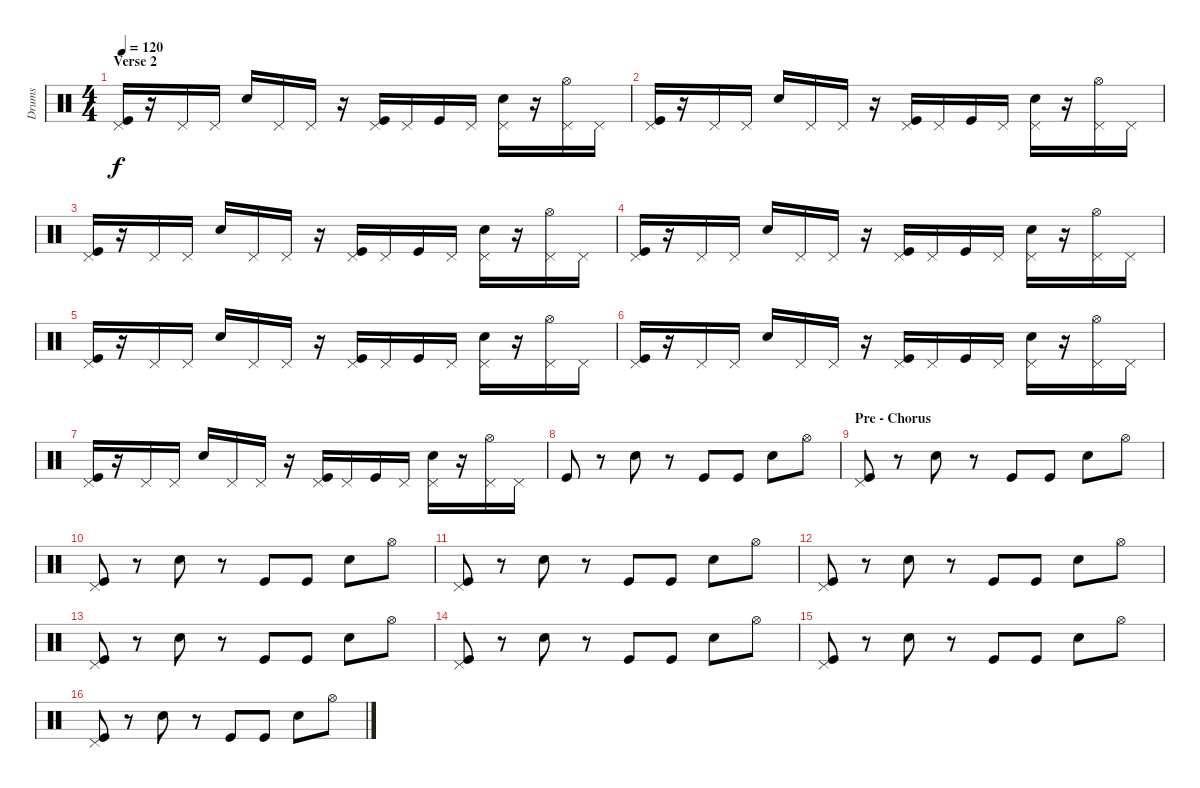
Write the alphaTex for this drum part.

\track ("Drums" "Drums") {instrument percussion}
\staff {score}
\articulation defaults
\ts (4 4)
\section ("" "Verse 2")
\tempo 120
\clef neutral
\ks c
("Kick (hit)" "Pedal Hi-Hat (hit)").16{dy f} r.16 "Pedal Hi-Hat (hit)".16 "Pedal Hi-Hat (hit)".16 "Snare (hit) 2".16 "Pedal Hi-Hat (hit)".16 "Pedal Hi-Hat (hit)".16 r.16 ("Kick (hit)" "Pedal Hi-Hat (hit)").16 "Pedal Hi-Hat (hit)".16 "Kick (hit)".16 "Pedal Hi-Hat (hit)".16 ("Snare (hit) 2" "Pedal Hi-Hat (hit)").16 r.16 ("Hi-Hat (open)" "Pedal Hi-Hat (hit)").16 "Pedal Hi-Hat (hit)".16 |
("Kick (hit)" "Pedal Hi-Hat (hit)").16 r.16 "Pedal Hi-Hat (hit)".16 "Pedal Hi-Hat (hit)".16 "Snare (hit) 2".16 "Pedal Hi-Hat (hit)".16 "Pedal Hi-Hat (hit)".16 r.16 ("Kick (hit)" "Pedal Hi-Hat (hit)").16 "Pedal Hi-Hat (hit)".16 "Kick (hit)".16 "Pedal Hi-Hat (hit)".16 ("Snare (hit) 2" "Pedal Hi-Hat (hit)").16 r.16 ("Hi-Hat (open)" "Pedal Hi-Hat (hit)").16 "Pedal Hi-Hat (hit)".16 |
("Kick (hit)" "Pedal Hi-Hat (hit)").16 r.16 "Pedal Hi-Hat (hit)".16 "Pedal Hi-Hat (hit)".16 "Snare (hit) 2".16 "Pedal Hi-Hat (hit)".16 "Pedal Hi-Hat (hit)".16 r.16 ("Kick (hit)" "Pedal Hi-Hat (hit)").16 "Pedal Hi-Hat (hit)".16 "Kick (hit)".16 "Pedal Hi-Hat (hit)".16 ("Snare (hit) 2" "Pedal Hi-Hat (hit)").16 r.16 ("Hi-Hat (open)" "Pedal Hi-Hat (hit)").16 "Pedal Hi-Hat (hit)".16 |
("Kick (hit)" "Pedal Hi-Hat (hit)").16 r.16 "Pedal Hi-Hat (hit)".16 "Pedal Hi-Hat (hit)".16 "Snare (hit) 2".16 "Pedal Hi-Hat (hit)".16 "Pedal Hi-Hat (hit)".16 r.16 ("Kick (hit)" "Pedal Hi-Hat (hit)").16 "Pedal Hi-Hat (hit)".16 "Kick (hit)".16 "Pedal Hi-Hat (hit)".16 ("Snare (hit) 2" "Pedal Hi-Hat (hit)").16 r.16 ("Hi-Hat (open)" "Pedal Hi-Hat (hit)").16 "Pedal Hi-Hat (hit)".16 |
("Kick (hit)" "Pedal Hi-Hat (hit)").16 r.16 "Pedal Hi-Hat (hit)".16 "Pedal Hi-Hat (hit)".16 "Snare (hit) 2".16 "Pedal Hi-Hat (hit)".16 "Pedal Hi-Hat (hit)".16 r.16 ("Kick (hit)" "Pedal Hi-Hat (hit)").16 "Pedal Hi-Hat (hit)".16 "Kick (hit)".16 "Pedal Hi-Hat (hit)".16 ("Snare (hit) 2" "Pedal Hi-Hat (hit)").16 r.16 ("Hi-Hat (open)" "Pedal Hi-Hat (hit)").16 "Pedal Hi-Hat (hit)".16 |
("Kick (hit)" "Pedal Hi-Hat (hit)").16 r.16 "Pedal Hi-Hat (hit)".16 "Pedal Hi-Hat (hit)".16 "Snare (hit) 2".16 "Pedal Hi-Hat (hit)".16 "Pedal Hi-Hat (hit)".16 r.16 ("Kick (hit)" "Pedal Hi-Hat (hit)").16 "Pedal Hi-Hat (hit)".16 "Kick (hit)".16 "Pedal Hi-Hat (hit)".16 ("Snare (hit) 2" "Pedal Hi-Hat (hit)").16 r.16 ("Hi-Hat (open)" "Pedal Hi-Hat (hit)").16 "Pedal Hi-Hat (hit)".16 |
("Kick (hit)" "Pedal Hi-Hat (hit)").16 r.16 "Pedal Hi-Hat (hit)".16 "Pedal Hi-Hat (hit)".16 "Snare (hit) 2".16 "Pedal Hi-Hat (hit)".16 "Pedal Hi-Hat (hit)".16 r.16 ("Kick (hit)" "Pedal Hi-Hat (hit)").16 "Pedal Hi-Hat (hit)".16 "Kick (hit)".16 "Pedal Hi-Hat (hit)".16 ("Snare (hit) 2" "Pedal Hi-Hat (hit)").16 r.16 ("Hi-Hat (open)" "Pedal Hi-Hat (hit)").16 "Pedal Hi-Hat (hit)".16 |
"Kick (hit)".8 r.8 "Snare (hit) 2".8 r.8 "Kick (hit)".8 "Kick (hit)".8 "Snare (hit) 2".8 "Hi-Hat (open)".8 |
\section ("" "Pre - Chorus")
("Kick (hit)" "Pedal Hi-Hat (hit)").8 r.8 "Snare (hit) 2".8 r.8 "Kick (hit)".8 "Kick (hit)".8 "Snare (hit) 2".8 "Hi-Hat (open)".8 |
("Kick (hit)" "Pedal Hi-Hat (hit)").8 r.8 "Snare (hit) 2".8 r.8 "Kick (hit)".8 "Kick (hit)".8 "Snare (hit) 2".8 "Hi-Hat (open)".8 |
("Kick (hit)" "Pedal Hi-Hat (hit)").8 r.8 "Snare (hit) 2".8 r.8 "Kick (hit)".8 "Kick (hit)".8 "Snare (hit) 2".8 "Hi-Hat (open)".8 |
("Kick (hit)" "Pedal Hi-Hat (hit)").8 r.8 "Snare (hit) 2".8 r.8 "Kick (hit)".8 "Kick (hit)".8 "Snare (hit) 2".8 "Hi-Hat (open)".8 |
("Kick (hit)" "Pedal Hi-Hat (hit)").8 r.8 "Snare (hit) 2".8 r.8 "Kick (hit)".8 "Kick (hit)".8 "Snare (hit) 2".8 "Hi-Hat (open)".8 |
("Kick (hit)" "Pedal Hi-Hat (hit)").8 r.8 "Snare (hit) 2".8 r.8 "Kick (hit)".8 "Kick (hit)".8 "Snare (hit) 2".8 "Hi-Hat (open)".8 |
("Kick (hit)" "Pedal Hi-Hat (hit)").8 r.8 "Snare (hit) 2".8 r.8 "Kick (hit)".8 "Kick (hit)".8 "Snare (hit) 2".8 "Hi-Hat (open)".8 |
("Kick (hit)" "Pedal Hi-Hat (hit)").8 r.8 "Snare (hit) 2".8 r.8 "Kick (hit)".8 "Kick (hit)".8 "Snare (hit) 2".8 "Hi-Hat (open)".8
